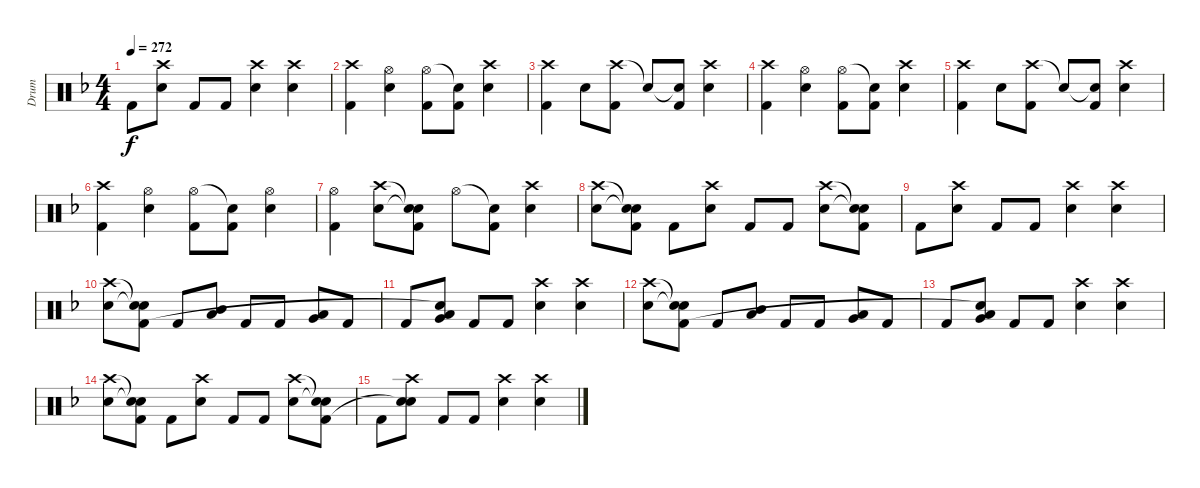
\track ("Drum" "Drum") {instrument percussion}
\staff {score}
\articulation defaults
\ts (4 4)
\tempo 272
\clef neutral
\ks f "Kick (hit) 2".8{dy f}
("Crash high (hit)" "Electric Snare (hit)").8 "Kick (hit) 2".8 "Kick (hit) 2".8 ("Crash high (hit)" "Electric Snare (hit)").4 ("Crash high (hit)" "Electric Snare (hit)").4 |
("Crash high (hit)" "Kick (hit) 2").4 ("Hi-Hat (open)" "Electric Snare (hit)").4 ("Hi-Hat (open)" "Kick (hit) 2").8 ("Snare (hit)"{t} "Kick (hit) 2").8 ("Crash high (hit)" "Electric Snare (hit)").4 |
("Crash high (hit)" "Kick (hit) 2").4 "Electric Snare (hit)".8 ("Crash high (hit)" "Kick (hit) 2").8 "Snare (hit)"{t}.8 ("Snare (hit)"{t} "Kick (hit) 2").8 ("Crash high (hit)" "Electric Snare (hit)").4 |
("Crash high (hit)" "Kick (hit) 2").4 ("Hi-Hat (open)" "Electric Snare (hit)").4 ("Hi-Hat (open)" "Kick (hit) 2").8 ("Snare (hit)"{t} "Kick (hit) 2").8 ("Crash high (hit)" "Electric Snare (hit)").4 |
("Crash high (hit)" "Kick (hit) 2").4 "Electric Snare (hit)".8 ("Crash high (hit)" "Kick (hit) 2").8 "Snare (hit)"{t}.8 ("Snare (hit)"{t} "Kick (hit) 2").8 ("Crash high (hit)" "Electric Snare (hit)").4 |
("Crash high (hit)" "Kick (hit) 2").4 ("Hi-Hat (open)" "Electric Snare (hit)").4 ("Hi-Hat (open)" "Kick (hit) 2").8 ("Snare (hit)"{t} "Kick (hit) 2").8 ("Hi-Hat (open)" "Electric Snare (hit)").4 |
("Hi-Hat (open)" "Kick (hit) 2").4 ("Crash high (hit)" "Electric Snare (hit)").8 ("Snare (hit)"{t} "Snare (hit)"{t} "Kick (hit) 2").8 "Hi-Hat (open)".8 ("Snare (hit)"{t} "Kick (hit) 2").8 ("Crash high (hit)" "Electric Snare (hit)").4 |
("Crash high (hit)" "Electric Snare (hit)").8 ("Snare (hit)"{t} "Snare (hit)"{t} "Kick (hit) 2").8 "Kick (hit) 2".8 ("Crash high (hit)" "Electric Snare (hit)").8 "Kick (hit) 2".8 "Kick (hit) 2".8 ("Crash high (hit)" "Electric Snare (hit)").8 ("Snare (hit)"{t} "Snare (hit)"{t} "Kick (hit) 2").8 |
"Kick (hit) 2".8 ("Crash high (hit)" "Electric Snare (hit)").8 "Kick (hit) 2".8 "Kick (hit) 2".8 ("Crash high (hit)" "Electric Snare (hit)").4 ("Crash high (hit)" "Electric Snare (hit)").4 |
("Crash high (hit)" "Electric Snare (hit)").8 ("Snare (hit)"{t} "Snare (hit)"{t} "Kick (hit) 2").8 "Kick (hit) 2".8 ("Mid Tom (hit)" "Low Tom (hit)").8 "Kick (hit) 2".8 "Kick (hit) 2".8 ("Low Tom (hit)" "Very Low Tom (hit)").8 "Kick (hit) 2".8 |
"Kick (hit) 2".8 ("Very Low Tom (hit)" "Low Floor Tom (hit)" "Snare (hit)"{t}).8 "Kick (hit) 2".8 "Kick (hit) 2".8 ("Crash high (hit)" "Electric Snare (hit)").4 ("Crash high (hit)" "Electric Snare (hit)").4 |
("Crash high (hit)" "Electric Snare (hit)").8 ("Snare (hit)"{t} "Snare (hit)"{t} "Kick (hit) 2").8 "Kick (hit) 2".8 ("Mid Tom (hit)" "Low Tom (hit)").8 "Kick (hit) 2".8 "Kick (hit) 2".8 ("Low Tom (hit)" "Very Low Tom (hit)").8 "Kick (hit) 2".8 |
"Kick (hit) 2".8 ("Very Low Tom (hit)" "Low Floor Tom (hit)" "Snare (hit)"{t}).8 "Kick (hit) 2".8 "Kick (hit) 2".8 ("Crash high (hit)" "Electric Snare (hit)").4 ("Crash high (hit)" "Electric Snare (hit)").4 |
("Crash high (hit)" "Electric Snare (hit)").8 ("Snare (hit)"{t} "Snare (hit)"{t} "Kick (hit) 2").8 "Kick (hit) 2".8 ("Crash high (hit)" "Electric Snare (hit)").8 "Kick (hit) 2".8 "Kick (hit) 2".8 ("Crash high (hit)" "Electric Snare (hit)").8 ("Snare (hit)"{t} "Snare (hit)"{t} "Kick (hit) 2").8 |
"Kick (hit) 2".8 ("Crash high (hit)" "Electric Snare (hit)" "Snare (hit)"{t}).8 "Kick (hit) 2".8 "Kick (hit) 2".8 ("Crash high (hit)" "Electric Snare (hit)").4 ("Crash high (hit)" "Electric Snare (hit)").4
